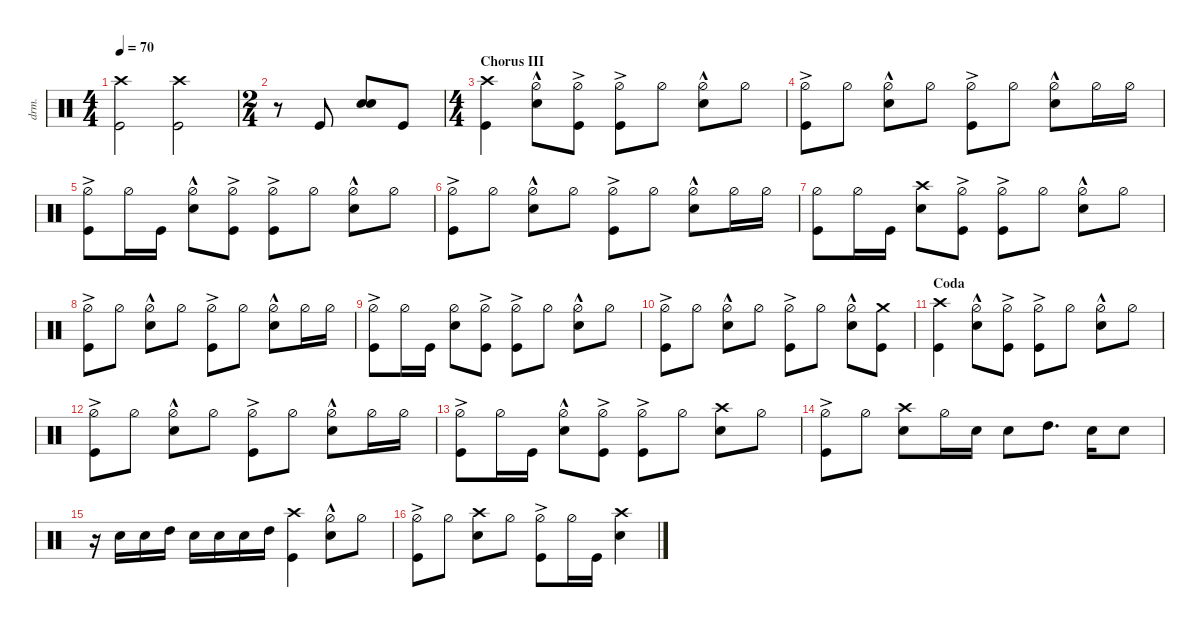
\defaultSystemsLayout 4
\hideDynamics
\bracketExtendMode nobrackets
\otherSystemsTrackNameOrientation horizontal
\track ("Drums" "drm.") {defaultSystemsLayout 4 multiBarRest instrument percussion}
\staff {score}
\articulation defaults
\ts (4 4)
\tempo 70
\clef neutral
\ks c
("Kick (hit)" "Crash high (hit)").2{dy ff} ("Kick (hit)" "Crash high (hit)").2 |
\ts (2 4)
\beaming (8 2 2)
r.8 "Kick (hit)".8 ("Snare (hit) 2" "Snare (hit) 2").8 "Kick (hit)".8 |
\ts (4 4)
\beaming (8 2 2 2 2)
\section ("" "Chorus III")
("Crash high (hit)" "Kick (hit)").4{dy f} ("Hi-Hat (half)"{hac} "Snare (hit) 2").8 ("Kick (hit)" "Hi-Hat (half)"{ac}).8 ("Kick (hit)" "Hi-Hat (half)"{ac}).8 "Hi-Hat (half)".8 ("Hi-Hat (half)"{hac} "Snare (hit) 2").8 "Hi-Hat (half)".8 |
("Kick (hit)" "Hi-Hat (half)"{ac}).8 "Hi-Hat (half)".8 ("Hi-Hat (half)"{hac} "Snare (hit) 2").8 "Hi-Hat (half)".8 ("Kick (hit)" "Hi-Hat (half)"{ac}).8 "Hi-Hat (half)".8 ("Hi-Hat (half)"{hac} "Snare (hit) 2").8 "Hi-Hat (half)".16 "Hi-Hat (half)".16 |
("Kick (hit)" "Hi-Hat (half)"{ac}).8 "Hi-Hat (half)".16 "Kick (hit)".16 ("Snare (hit) 2" "Hi-Hat (half)"{hac}).8 ("Kick (hit)" "Hi-Hat (half)"{ac}).8 ("Kick (hit)" "Hi-Hat (half)"{ac}).8 "Hi-Hat (half)".8 ("Snare (hit) 2" "Hi-Hat (half)"{hac}).8 "Hi-Hat (half)".8 |
("Kick (hit)" "Hi-Hat (half)"{ac}).8 "Hi-Hat (half)".8 ("Hi-Hat (half)"{hac} "Snare (hit) 2").8 "Hi-Hat (half)".8 ("Kick (hit)" "Hi-Hat (half)"{ac}).8 "Hi-Hat (half)".8 ("Hi-Hat (half)"{hac} "Snare (hit) 2").8 "Hi-Hat (half)".16 "Hi-Hat (half)".16 |
("Kick (hit)" "Hi-Hat (half)").8 "Hi-Hat (half)".16 "Kick (hit)".16 ("Snare (hit) 2" "Crash high (hit)").8 ("Kick (hit)" "Hi-Hat (half)"{ac}).8 ("Kick (hit)" "Hi-Hat (half)"{ac}).8 "Hi-Hat (half)".8 ("Snare (hit) 2" "Hi-Hat (half)"{hac}).8 "Hi-Hat (half)".8 |
("Kick (hit)" "Hi-Hat (half)"{ac}).8 "Hi-Hat (half)".8 ("Hi-Hat (half)"{hac} "Snare (hit) 2").8 "Hi-Hat (half)".8 ("Kick (hit)" "Hi-Hat (half)"{ac}).8 "Hi-Hat (half)".8 ("Hi-Hat (half)"{hac} "Snare (hit) 2").8 "Hi-Hat (half)".16 "Hi-Hat (half)".16 |
("Kick (hit)" "Hi-Hat (half)"{ac}).8 "Hi-Hat (half)".16 "Kick (hit)".16 ("Snare (hit) 2" "Hi-Hat (half)").8 ("Kick (hit)" "Hi-Hat (half)"{ac}).8 ("Kick (hit)" "Hi-Hat (half)"{ac}).8 "Hi-Hat (half)".8 ("Snare (hit) 2" "Hi-Hat (half)"{hac}).8 "Hi-Hat (half)".8 |
("Kick (hit)" "Hi-Hat (half)"{ac}).8 "Hi-Hat (half)".8 ("Hi-Hat (half)"{hac} "Snare (hit) 2").8 "Hi-Hat (half)".8 ("Kick (hit)" "Hi-Hat (half)"{ac}).8 "Hi-Hat (half)".8 ("Hi-Hat (half)"{hac} "Snare (hit) 2").8 ("Kick (hit)" "Crash medium (hit)").8 |
\section ("" "Coda")
("Crash high (hit)" "Kick (hit)").4 ("Hi-Hat (half)"{hac} "Snare (hit) 2").8 ("Kick (hit)" "Hi-Hat (half)"{ac}).8 ("Kick (hit)" "Hi-Hat (half)"{ac}).8 "Hi-Hat (half)".8 ("Hi-Hat (half)"{hac} "Snare (hit) 2").8 "Hi-Hat (half)".8 |
("Kick (hit)" "Hi-Hat (half)"{ac}).8 "Hi-Hat (half)".8 ("Hi-Hat (half)"{hac} "Snare (hit) 2").8 "Hi-Hat (half)".8 ("Kick (hit)" "Hi-Hat (half)"{ac}).8 "Hi-Hat (half)".8 ("Hi-Hat (half)"{hac} "Snare (hit) 2").8 "Hi-Hat (half)".16 "Hi-Hat (half)".16 |
("Kick (hit)" "Hi-Hat (half)"{ac}).8 "Hi-Hat (half)".16 "Kick (hit)".16 ("Snare (hit) 2" "Hi-Hat (half)"{hac}).8 ("Kick (hit)" "Hi-Hat (half)"{ac}).8 ("Kick (hit)" "Hi-Hat (half)"{ac}).8 "Hi-Hat (half)".8 ("Snare (hit) 2" "Crash high (hit)").8 "Hi-Hat (half)".8 |
("Kick (hit)" "Hi-Hat (half)"{ac}).8 "Hi-Hat (half)".8 ("Snare (hit) 2" "Crash high (hit)").8 "Hi-Hat (half)".16 "Snare (hit) 2".16 "Snare (hit) 2".8 "High Tom (hit)".8{d dy ff} "Snare (hit) 2".16{dy f} "Snare (hit) 2".8 |
r.16 "Snare (hit) 2".16 "Snare (hit) 2".16 "High Tom (hit)".16{dy ff} "Snare (hit) 2".16{dy f} "Snare (hit) 2".16 "Snare (hit) 2".16 "High Tom (hit)".16{dy ff} ("Crash high (hit)" "Kick (hit)").4{dy f} ("Hi-Hat (half)"{hac} "Snare (hit) 2").8 "Hi-Hat (half)".8 |
("Kick (hit)" "Hi-Hat (half)"{ac}).8 "Hi-Hat (half)".8 ("Snare (hit) 2" "Crash high (hit)").8 "Hi-Hat (half)".8 ("Kick (hit)" "Hi-Hat (half)"{ac}).8 "Hi-Hat (half)".16 "Kick (hit)".16 ("Snare (hit) 2" "Crash high (hit)").4
